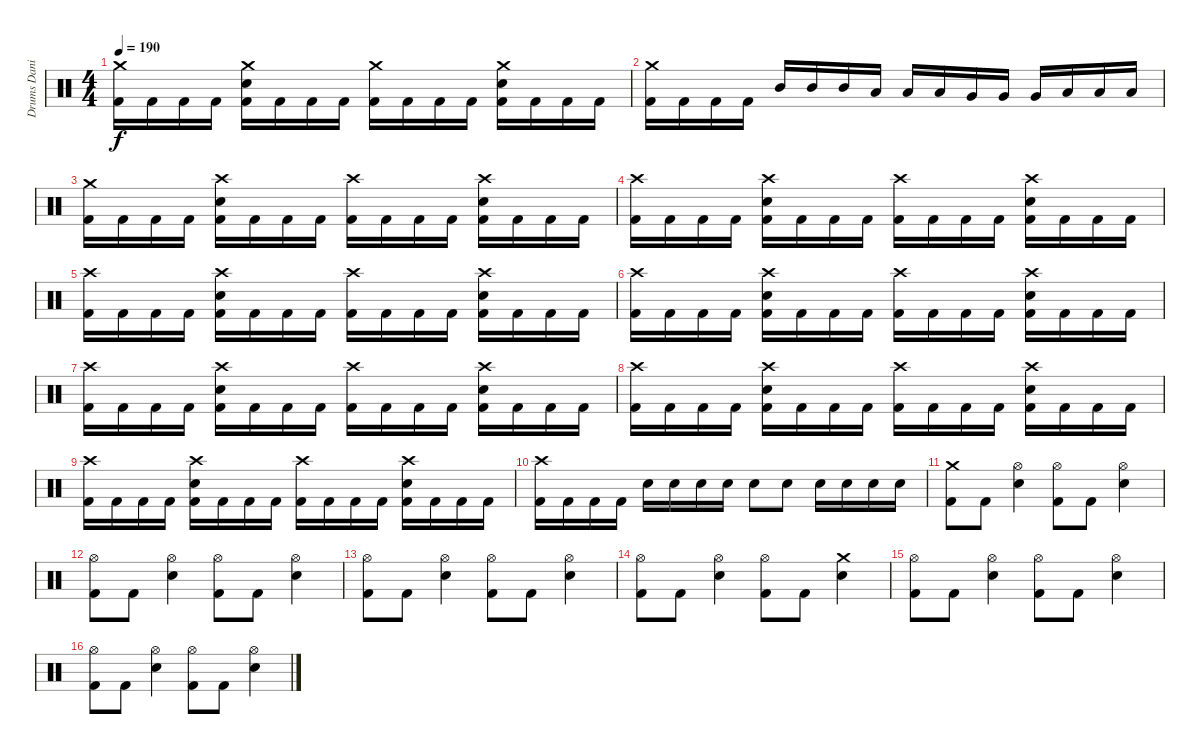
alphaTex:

\track ("Drums Daniel" "Drums Dani") {instrument percussion}
\staff {score}
\articulation defaults
\ts (4 4)
\tempo 190
\clef neutral
\ks c
("Crash medium (hit)" "Kick (hit) 2").16{dy f} "Kick (hit) 2".16 "Kick (hit) 2".16 "Kick (hit) 2".16 ("Crash medium (hit)" "Electric Snare (hit)" "Kick (hit) 2").16 "Kick (hit) 2".16 "Kick (hit) 2".16 "Kick (hit) 2".16 ("Crash medium (hit)" "Kick (hit) 2").16 "Kick (hit) 2".16 "Kick (hit) 2".16 "Kick (hit) 2".16 ("Crash medium (hit)" "Electric Snare (hit)" "Kick (hit) 2").16 "Kick (hit) 2".16 "Kick (hit) 2".16 "Kick (hit) 2".16 |
("Crash medium (hit)" "Kick (hit) 2").16 "Kick (hit) 2".16 "Kick (hit) 2".16 "Kick (hit) 2".16 "Mid Tom (hit)".16 "Mid Tom (hit)".16 "Mid Tom (hit)".16 "Low Tom (hit)".16 "Low Tom (hit)".16 "Low Tom (hit)".16 "Very Low Tom (hit)".16 "Very Low Tom (hit)".16 "Very Low Tom (hit)".16 "Low Floor Tom (hit)".16 "Low Floor Tom (hit)".16 "Low Floor Tom (hit)".16 |
("Crash medium (hit)" "Kick (hit) 2").16 "Kick (hit) 2".16 "Kick (hit) 2".16 "Kick (hit) 2".16 ("Crash high (hit)" "Electric Snare (hit)" "Kick (hit) 2").16 "Kick (hit) 2".16 "Kick (hit) 2".16 "Kick (hit) 2".16 ("Crash high (hit)" "Kick (hit) 2").16 "Kick (hit) 2".16 "Kick (hit) 2".16 "Kick (hit) 2".16 ("Crash high (hit)" "Electric Snare (hit)" "Kick (hit) 2").16 "Kick (hit) 2".16 "Kick (hit) 2".16 "Kick (hit) 2".16 |
("Crash high (hit)" "Kick (hit) 2").16 "Kick (hit) 2".16 "Kick (hit) 2".16 "Kick (hit) 2".16 ("Crash high (hit)" "Electric Snare (hit)" "Kick (hit) 2").16 "Kick (hit) 2".16 "Kick (hit) 2".16 "Kick (hit) 2".16 ("Crash high (hit)" "Kick (hit) 2").16 "Kick (hit) 2".16 "Kick (hit) 2".16 "Kick (hit) 2".16 ("Crash high (hit)" "Electric Snare (hit)" "Kick (hit) 2").16 "Kick (hit) 2".16 "Kick (hit) 2".16 "Kick (hit) 2".16 |
("Crash high (hit)" "Kick (hit) 2").16 "Kick (hit) 2".16 "Kick (hit) 2".16 "Kick (hit) 2".16 ("Crash high (hit)" "Electric Snare (hit)" "Kick (hit) 2").16 "Kick (hit) 2".16 "Kick (hit) 2".16 "Kick (hit) 2".16 ("Crash high (hit)" "Kick (hit) 2").16 "Kick (hit) 2".16 "Kick (hit) 2".16 "Kick (hit) 2".16 ("Crash high (hit)" "Electric Snare (hit)" "Kick (hit) 2").16 "Kick (hit) 2".16 "Kick (hit) 2".16 "Kick (hit) 2".16 |
("Crash high (hit)" "Kick (hit) 2").16 "Kick (hit) 2".16 "Kick (hit) 2".16 "Kick (hit) 2".16 ("Crash high (hit)" "Electric Snare (hit)" "Kick (hit) 2").16 "Kick (hit) 2".16 "Kick (hit) 2".16 "Kick (hit) 2".16 ("Crash high (hit)" "Kick (hit) 2").16 "Kick (hit) 2".16 "Kick (hit) 2".16 "Kick (hit) 2".16 ("Crash high (hit)" "Electric Snare (hit)" "Kick (hit) 2").16 "Kick (hit) 2".16 "Kick (hit) 2".16 "Kick (hit) 2".16 |
("Crash high (hit)" "Kick (hit) 2").16 "Kick (hit) 2".16 "Kick (hit) 2".16 "Kick (hit) 2".16 ("Crash high (hit)" "Electric Snare (hit)" "Kick (hit) 2").16 "Kick (hit) 2".16 "Kick (hit) 2".16 "Kick (hit) 2".16 ("Crash high (hit)" "Kick (hit) 2").16 "Kick (hit) 2".16 "Kick (hit) 2".16 "Kick (hit) 2".16 ("Crash high (hit)" "Electric Snare (hit)" "Kick (hit) 2").16 "Kick (hit) 2".16 "Kick (hit) 2".16 "Kick (hit) 2".16 |
("Crash high (hit)" "Kick (hit) 2").16 "Kick (hit) 2".16 "Kick (hit) 2".16 "Kick (hit) 2".16 ("Crash high (hit)" "Electric Snare (hit)" "Kick (hit) 2").16 "Kick (hit) 2".16 "Kick (hit) 2".16 "Kick (hit) 2".16 ("Crash high (hit)" "Kick (hit) 2").16 "Kick (hit) 2".16 "Kick (hit) 2".16 "Kick (hit) 2".16 ("Crash high (hit)" "Electric Snare (hit)" "Kick (hit) 2").16 "Kick (hit) 2".16 "Kick (hit) 2".16 "Kick (hit) 2".16 |
("Crash high (hit)" "Kick (hit) 2").16 "Kick (hit) 2".16 "Kick (hit) 2".16 "Kick (hit) 2".16 ("Crash high (hit)" "Electric Snare (hit)" "Kick (hit) 2").16 "Kick (hit) 2".16 "Kick (hit) 2".16 "Kick (hit) 2".16 ("Crash high (hit)" "Kick (hit) 2").16 "Kick (hit) 2".16 "Kick (hit) 2".16 "Kick (hit) 2".16 ("Crash high (hit)" "Electric Snare (hit)" "Kick (hit) 2").16 "Kick (hit) 2".16 "Kick (hit) 2".16 "Kick (hit) 2".16 |
("Crash high (hit)" "Kick (hit) 2").16 "Kick (hit) 2".16 "Kick (hit) 2".16 "Kick (hit) 2".16 "Electric Snare (hit)".16 "Electric Snare (hit)".16 "Electric Snare (hit)".16 "Electric Snare (hit)".16 "Electric Snare (hit)".8 "Electric Snare (hit)".8 "Electric Snare (hit)".16 "Electric Snare (hit)".16 "Electric Snare (hit)".16 "Electric Snare (hit)".16 |
("Crash medium (hit)" "Kick (hit) 2").8 "Kick (hit) 2".8 ("Hi-Hat (open)" "Electric Snare (hit)").4 ("Hi-Hat (open)" "Kick (hit) 2").8 "Kick (hit) 2".8 ("Hi-Hat (open)" "Electric Snare (hit)").4 |
("Hi-Hat (open)" "Kick (hit) 2").8 "Kick (hit) 2".8 ("Hi-Hat (open)" "Electric Snare (hit)").4 ("Hi-Hat (open)" "Kick (hit) 2").8 "Kick (hit) 2".8 ("Hi-Hat (open)" "Electric Snare (hit)").4 |
("Hi-Hat (open)" "Kick (hit) 2").8 "Kick (hit) 2".8 ("Hi-Hat (open)" "Electric Snare (hit)").4 ("Hi-Hat (open)" "Kick (hit) 2").8 "Kick (hit) 2".8 ("Hi-Hat (open)" "Electric Snare (hit)").4 |
("Hi-Hat (open)" "Kick (hit) 2").8 "Kick (hit) 2".8 ("Hi-Hat (open)" "Electric Snare (hit)").4 ("Hi-Hat (open)" "Kick (hit) 2").8 "Kick (hit) 2".8 ("Crash medium (hit)" "Electric Snare (hit)").4 |
("Hi-Hat (open)" "Kick (hit) 2").8 "Kick (hit) 2".8 ("Hi-Hat (open)" "Electric Snare (hit)").4 ("Hi-Hat (open)" "Kick (hit) 2").8 "Kick (hit) 2".8 ("Hi-Hat (open)" "Electric Snare (hit)").4 |
("Hi-Hat (open)" "Kick (hit) 2").8 "Kick (hit) 2".8 ("Hi-Hat (open)" "Electric Snare (hit)").4 ("Hi-Hat (open)" "Kick (hit) 2").8 "Kick (hit) 2".8 ("Hi-Hat (open)" "Electric Snare (hit)").4
